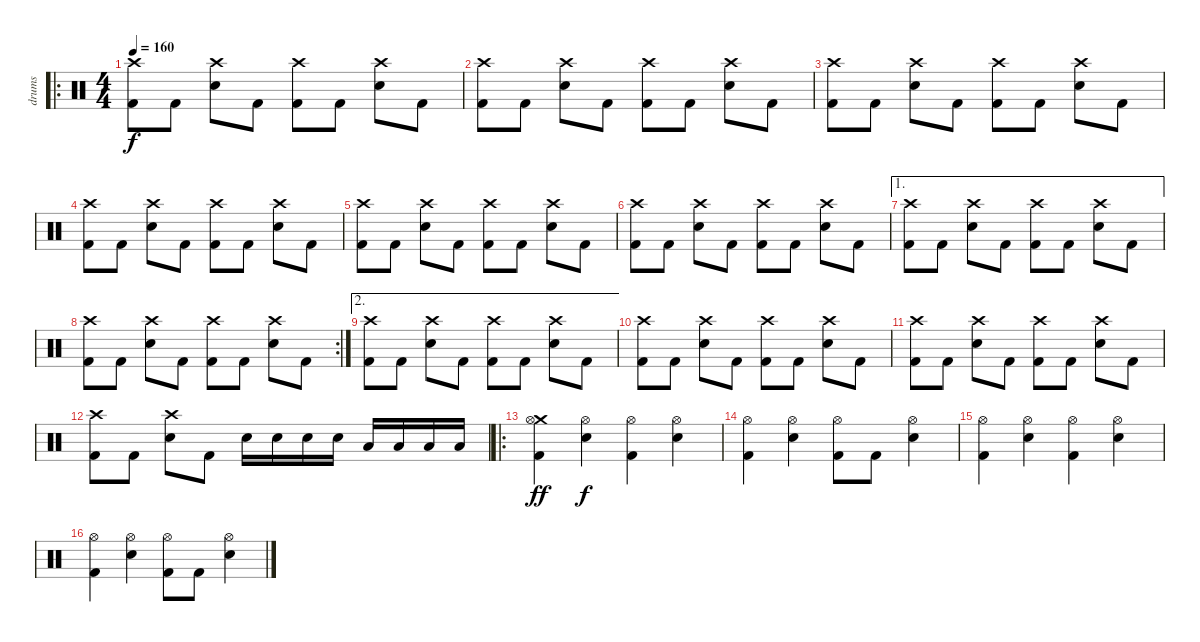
\track ("drums" "drums") {instrument percussion}
\staff {score}
\articulation defaults
\ro
\ts (4 4)
\tempo 160
\clef neutral
\ks c
("Kick (hit) 2" "Crash high (hit)").8{dy f} "Kick (hit) 2".8 ("Crash high (hit)" "Snare (hit) 2").8 "Kick (hit) 2".8 ("Kick (hit) 2" "Crash high (hit)").8 "Kick (hit) 2".8 ("Crash high (hit)" "Snare (hit) 2").8 "Kick (hit) 2".8 |
("Kick (hit) 2" "Crash high (hit)").8 "Kick (hit) 2".8 ("Crash high (hit)" "Snare (hit) 2").8 "Kick (hit) 2".8 ("Kick (hit) 2" "Crash high (hit)").8 "Kick (hit) 2".8 ("Crash high (hit)" "Snare (hit) 2").8 "Kick (hit) 2".8 |
("Kick (hit) 2" "Crash high (hit)").8 "Kick (hit) 2".8 ("Crash high (hit)" "Snare (hit) 2").8 "Kick (hit) 2".8 ("Kick (hit) 2" "Crash high (hit)").8 "Kick (hit) 2".8 ("Crash high (hit)" "Snare (hit) 2").8 "Kick (hit) 2".8 |
("Kick (hit) 2" "Crash high (hit)").8 "Kick (hit) 2".8 ("Crash high (hit)" "Snare (hit) 2").8 "Kick (hit) 2".8 ("Kick (hit) 2" "Crash high (hit)").8 "Kick (hit) 2".8 ("Crash high (hit)" "Snare (hit) 2").8 "Kick (hit) 2".8 |
("Kick (hit) 2" "Crash high (hit)").8 "Kick (hit) 2".8 ("Crash high (hit)" "Snare (hit) 2").8 "Kick (hit) 2".8 ("Kick (hit) 2" "Crash high (hit)").8 "Kick (hit) 2".8 ("Crash high (hit)" "Snare (hit) 2").8 "Kick (hit) 2".8 |
("Kick (hit) 2" "Crash high (hit)").8 "Kick (hit) 2".8 ("Crash high (hit)" "Snare (hit) 2").8 "Kick (hit) 2".8 ("Kick (hit) 2" "Crash high (hit)").8 "Kick (hit) 2".8 ("Crash high (hit)" "Snare (hit) 2").8 "Kick (hit) 2".8 |
\ae 1
("Kick (hit) 2" "Crash high (hit)").8 "Kick (hit) 2".8 ("Crash high (hit)" "Snare (hit) 2").8 "Kick (hit) 2".8 ("Kick (hit) 2" "Crash high (hit)").8 "Kick (hit) 2".8 ("Crash high (hit)" "Snare (hit) 2").8 "Kick (hit) 2".8 |
\rc 2
("Kick (hit) 2" "Crash high (hit)").8 "Kick (hit) 2".8 ("Crash high (hit)" "Snare (hit) 2").8 "Kick (hit) 2".8 ("Kick (hit) 2" "Crash high (hit)").8 "Kick (hit) 2".8 ("Crash high (hit)" "Snare (hit) 2").8 "Kick (hit) 2".8 |
\ae 2
("Kick (hit) 2" "Crash high (hit)").8 "Kick (hit) 2".8 ("Crash high (hit)" "Snare (hit) 2").8 "Kick (hit) 2".8 ("Kick (hit) 2" "Crash high (hit)").8 "Kick (hit) 2".8 ("Crash high (hit)" "Snare (hit) 2").8 "Kick (hit) 2".8 |
("Kick (hit) 2" "Crash high (hit)").8 "Kick (hit) 2".8 ("Crash high (hit)" "Snare (hit) 2").8 "Kick (hit) 2".8 ("Kick (hit) 2" "Crash high (hit)").8 "Kick (hit) 2".8 ("Crash high (hit)" "Snare (hit) 2").8 "Kick (hit) 2".8 |
("Kick (hit) 2" "Crash high (hit)").8 "Kick (hit) 2".8 ("Crash high (hit)" "Snare (hit) 2").8 "Kick (hit) 2".8 ("Kick (hit) 2" "Crash high (hit)").8 "Kick (hit) 2".8 ("Crash high (hit)" "Snare (hit) 2").8 "Kick (hit) 2".8 |
("Kick (hit) 2" "Crash high (hit)").8 "Kick (hit) 2".8 ("Crash high (hit)" "Snare (hit) 2").8 "Kick (hit) 2".8 "Snare (hit) 2".16 "Snare (hit) 2".16 "Snare (hit) 2".16 "Snare (hit) 2".16 "Low Tom (hit)".16 "Low Tom (hit)".16 "Low Tom (hit)".16 "Low Tom (hit)".16 |
\ro
("Kick (hit) 2" "Crash medium (hit)" "Hi-Hat (open)").4{dy ff} ("Hi-Hat (open)" "Snare (hit) 2").4{dy f} ("Kick (hit) 2" "Hi-Hat (open)").4 ("Hi-Hat (open)" "Snare (hit) 2").4 |
("Kick (hit) 2" "Hi-Hat (open)").4 ("Hi-Hat (open)" "Snare (hit) 2").4 ("Kick (hit) 2" "Hi-Hat (open)").8 "Kick (hit) 2".8 ("Hi-Hat (open)" "Snare (hit) 2").4 |
("Kick (hit) 2" "Hi-Hat (open)").4 ("Hi-Hat (open)" "Snare (hit) 2").4 ("Kick (hit) 2" "Hi-Hat (open)").4 ("Hi-Hat (open)" "Snare (hit) 2").4 |
("Kick (hit) 2" "Hi-Hat (open)").4 ("Hi-Hat (open)" "Snare (hit) 2").4 ("Kick (hit) 2" "Hi-Hat (open)").8 "Kick (hit) 2".8 ("Hi-Hat (open)" "Snare (hit) 2").4
